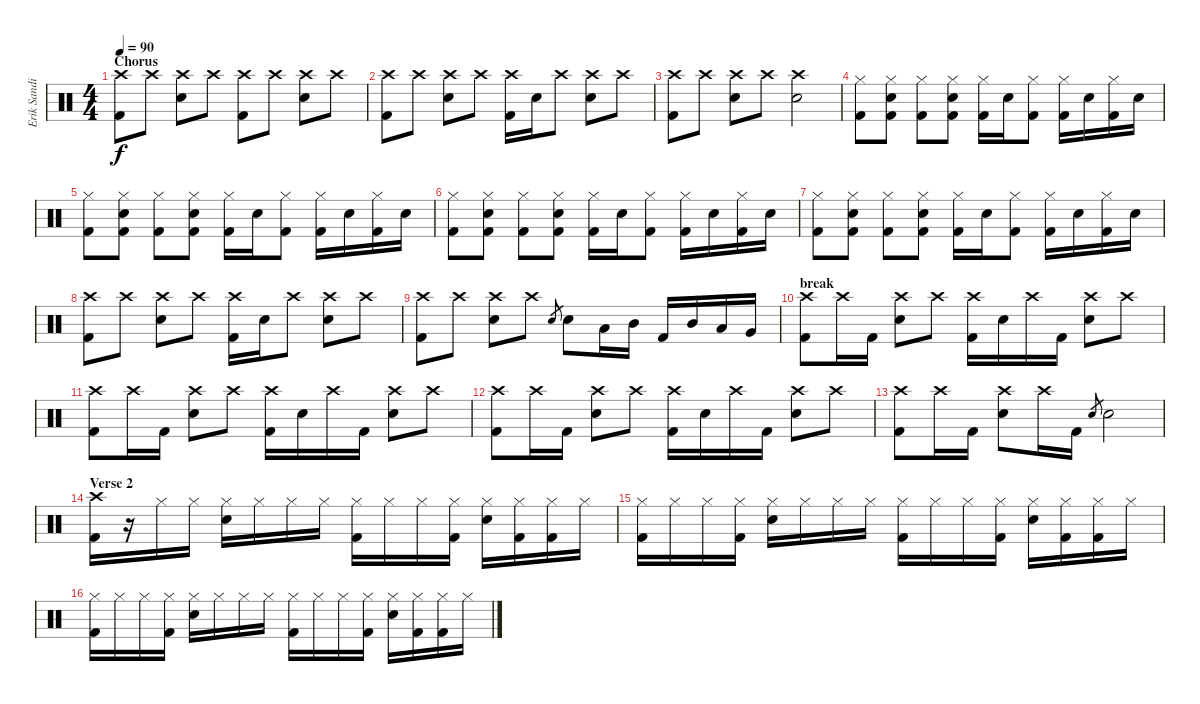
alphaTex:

\track ("Erik Sandin" "Erik Sandi") {instrument percussion}
\staff {score}
\articulation defaults
\ts (4 4)
\section ("" "Chorus")
\tempo 90
\clef neutral
\ks c
("Crash high (hit)" "Kick (hit) 2").8{dy f} "Crash high (hit)".8 ("Crash high (hit)" "Electric Snare (hit)").8 "Crash high (hit)".8 ("Crash high (hit)" "Kick (hit) 2").8 "Crash high (hit)".8 ("Crash high (hit)" "Electric Snare (hit)").8 "Crash high (hit)".8 |
("Crash high (hit)" "Kick (hit) 2").8 "Crash high (hit)".8 ("Crash high (hit)" "Electric Snare (hit)").8 "Crash high (hit)".8 ("Crash high (hit)" "Kick (hit) 2").16 "Electric Snare (hit)".16 "Crash high (hit)".8 ("Crash high (hit)" "Electric Snare (hit)").8 "Crash high (hit)".8 |
("Crash high (hit)" "Kick (hit) 2").8 "Crash high (hit)".8 ("Crash high (hit)" "Electric Snare (hit)").8 "Crash high (hit)".8 ("Crash high (hit)" "Electric Snare (hit)").2 |
("Hi-Hat (closed)" "Kick (hit) 2").8 ("Hi-Hat (closed)" "Electric Snare (hit)" "Kick (hit) 2").8 ("Hi-Hat (closed)" "Kick (hit) 2").8 ("Hi-Hat (closed)" "Electric Snare (hit)" "Kick (hit) 2").8 ("Hi-Hat (closed)" "Kick (hit) 2").16 "Electric Snare (hit)".16 ("Hi-Hat (closed)" "Kick (hit) 2").8 ("Hi-Hat (closed)" "Kick (hit) 2").16 "Electric Snare (hit)".16 ("Hi-Hat (closed)" "Kick (hit) 2").16 "Electric Snare (hit)".16 |
("Hi-Hat (closed)" "Kick (hit) 2").8 ("Hi-Hat (closed)" "Electric Snare (hit)" "Kick (hit) 2").8 ("Hi-Hat (closed)" "Kick (hit) 2").8 ("Hi-Hat (closed)" "Electric Snare (hit)" "Kick (hit) 2").8 ("Hi-Hat (closed)" "Kick (hit) 2").16 "Electric Snare (hit)".16 ("Hi-Hat (closed)" "Kick (hit) 2").8 ("Hi-Hat (closed)" "Kick (hit) 2").16 "Electric Snare (hit)".16 ("Hi-Hat (closed)" "Kick (hit) 2").16 "Electric Snare (hit)".16 |
("Hi-Hat (closed)" "Kick (hit) 2").8 ("Hi-Hat (closed)" "Electric Snare (hit)" "Kick (hit) 2").8 ("Hi-Hat (closed)" "Kick (hit) 2").8 ("Hi-Hat (closed)" "Electric Snare (hit)" "Kick (hit) 2").8 ("Hi-Hat (closed)" "Kick (hit) 2").16 "Electric Snare (hit)".16 ("Hi-Hat (closed)" "Kick (hit) 2").8 ("Hi-Hat (closed)" "Kick (hit) 2").16 "Electric Snare (hit)".16 ("Hi-Hat (closed)" "Kick (hit) 2").16 "Electric Snare (hit)".16 |
("Hi-Hat (closed)" "Kick (hit) 2").8 ("Hi-Hat (closed)" "Electric Snare (hit)" "Kick (hit) 2").8 ("Hi-Hat (closed)" "Kick (hit) 2").8 ("Hi-Hat (closed)" "Electric Snare (hit)" "Kick (hit) 2").8 ("Hi-Hat (closed)" "Kick (hit) 2").16 "Electric Snare (hit)".16 ("Hi-Hat (closed)" "Kick (hit) 2").8 ("Hi-Hat (closed)" "Kick (hit) 2").16 "Electric Snare (hit)".16 ("Hi-Hat (closed)" "Kick (hit) 2").16 "Electric Snare (hit)".16 |
("Crash high (hit)" "Kick (hit) 2").8 "Crash high (hit)".8 ("Crash high (hit)" "Electric Snare (hit)").8 "Crash high (hit)".8 ("Crash high (hit)" "Kick (hit) 2").16 "Electric Snare (hit)".16 "Crash high (hit)".8 ("Crash high (hit)" "Electric Snare (hit)").8 "Crash high (hit)".8 |
("Crash high (hit)" "Kick (hit) 2").8 "Crash high (hit)".8 ("Crash high (hit)" "Electric Snare (hit)").8 "Crash high (hit)".8 "Electric Snare (hit)".8{gr} "Electric Snare (hit)".8 "Low Tom (hit)".16 "Mid Tom (hit)".16 "Kick (hit) 2".16 "Mid Tom (hit)".16 "Low Tom (hit)".16 "Very Low Tom (hit)".16 |
\section ("" "break")
("Crash high (hit)" "Kick (hit) 2").8 "Crash high (hit)".16 "Kick (hit) 2".16 ("Crash high (hit)" "Electric Snare (hit)").8 "Crash high (hit)".8 ("Crash high (hit)" "Kick (hit) 2").16 "Electric Snare (hit)".16 "Crash high (hit)".16 "Kick (hit) 2".16 ("Crash high (hit)" "Electric Snare (hit)").8 "Crash high (hit)".8 |
("Crash high (hit)" "Kick (hit) 2").8 "Crash high (hit)".16 "Kick (hit) 2".16 ("Crash high (hit)" "Electric Snare (hit)").8 "Crash high (hit)".8 ("Crash high (hit)" "Kick (hit) 2").16 "Electric Snare (hit)".16 "Crash high (hit)".16 "Kick (hit) 2".16 ("Crash high (hit)" "Electric Snare (hit)").8 "Crash high (hit)".8 |
("Crash high (hit)" "Kick (hit) 2").8 "Crash high (hit)".16 "Kick (hit) 2".16 ("Crash high (hit)" "Electric Snare (hit)").8 "Crash high (hit)".8 ("Crash high (hit)" "Kick (hit) 2").16 "Electric Snare (hit)".16 "Crash high (hit)".16 "Kick (hit) 2".16 ("Crash high (hit)" "Electric Snare (hit)").8 "Crash high (hit)".8 |
("Crash high (hit)" "Kick (hit) 2").8 "Crash high (hit)".16 "Kick (hit) 2".16 ("Crash high (hit)" "Electric Snare (hit)").8 "Crash high (hit)".16 "Kick (hit) 2".16 "Electric Snare (hit)".8{gr} "Electric Snare (hit)".2 |
\section ("" "Verse 2")
("Crash high (hit)" "Kick (hit) 2").16 r.16 "Hi-Hat (closed)".16 "Hi-Hat (closed)".16 ("Hi-Hat (closed)" "Electric Snare (hit)").16 "Hi-Hat (closed)".16 "Hi-Hat (closed)".16 "Hi-Hat (closed)".16 ("Hi-Hat (closed)" "Kick (hit) 2").16 "Hi-Hat (closed)".16 "Hi-Hat (closed)".16 ("Hi-Hat (closed)" "Kick (hit) 2").16 ("Hi-Hat (closed)" "Electric Snare (hit)").16 ("Hi-Hat (closed)" "Kick (hit) 2").16 ("Hi-Hat (closed)" "Kick (hit) 2").16 "Hi-Hat (closed)".16 |
("Hi-Hat (closed)" "Kick (hit) 2").16 "Hi-Hat (closed)".16 "Hi-Hat (closed)".16 ("Hi-Hat (closed)" "Kick (hit) 2").16 ("Hi-Hat (closed)" "Electric Snare (hit)").16 "Hi-Hat (closed)".16 "Hi-Hat (closed)".16 "Hi-Hat (closed)".16 ("Hi-Hat (closed)" "Kick (hit) 2").16 "Hi-Hat (closed)".16 "Hi-Hat (closed)".16 ("Hi-Hat (closed)" "Kick (hit) 2").16 ("Hi-Hat (closed)" "Electric Snare (hit)").16 ("Hi-Hat (closed)" "Kick (hit) 2").16 ("Hi-Hat (closed)" "Kick (hit) 2").16 "Hi-Hat (closed)".16 |
("Hi-Hat (closed)" "Kick (hit) 2").16 "Hi-Hat (closed)".16 "Hi-Hat (closed)".16 ("Hi-Hat (closed)" "Kick (hit) 2").16 ("Hi-Hat (closed)" "Electric Snare (hit)").16 "Hi-Hat (closed)".16 "Hi-Hat (closed)".16 "Hi-Hat (closed)".16 ("Hi-Hat (closed)" "Kick (hit) 2").16 "Hi-Hat (closed)".16 "Hi-Hat (closed)".16 ("Hi-Hat (closed)" "Kick (hit) 2").16 ("Hi-Hat (closed)" "Electric Snare (hit)").16 ("Hi-Hat (closed)" "Kick (hit) 2").16 ("Hi-Hat (closed)" "Kick (hit) 2").16 "Hi-Hat (closed)".16
